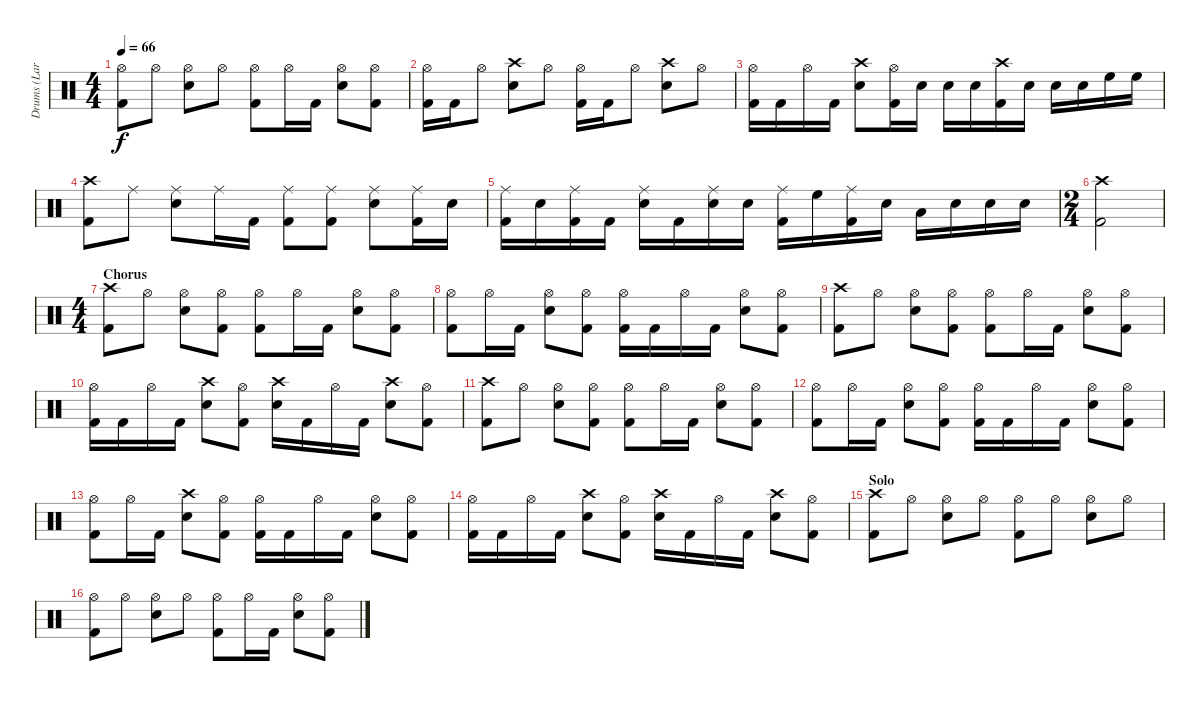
\track ("Drums (Lars)" "Drums (Lar") {instrument percussion}
\staff {score}
\articulation defaults
\ts (4 4)
\tempo 66
\clef neutral
\ks c
("Hi-Hat (open)" "Kick (hit) 2").8{dy f} "Hi-Hat (open)".8 ("Hi-Hat (open)" "Snare (hit) 2").8 "Hi-Hat (open)".8 ("Hi-Hat (open)" "Kick (hit) 2").8 "Hi-Hat (open)".16 "Kick (hit) 2".16 ("Hi-Hat (open)" "Snare (hit) 2").8 ("Hi-Hat (open)" "Kick (hit) 2").8 |
("Hi-Hat (open)" "Kick (hit) 2").16 "Kick (hit) 2".16 "Hi-Hat (open)".8 ("Crash high (hit)" "Snare (hit) 2").8 "Hi-Hat (open)".8 ("Hi-Hat (open)" "Kick (hit) 2").16 "Kick (hit) 2".16 "Hi-Hat (open)".8 ("Crash high (hit)" "Snare (hit) 2").8 "Hi-Hat (open)".8 |
("Hi-Hat (open)" "Kick (hit) 2").16 "Kick (hit) 2".16 "Hi-Hat (open)".16 "Kick (hit) 2".16 ("Crash high (hit)" "Snare (hit) 2").8 ("Hi-Hat (open)" "Kick (hit) 2").16 "Snare (hit) 2".16 "Snare (hit) 2".16 "Snare (hit) 2".16 ("Crash high (hit)" "Kick (hit) 2").16 "Snare (hit) 2".16 "Snare (hit) 2".16 "Snare (hit) 2".16 "High Floor Tom (hit)".16 "High Floor Tom (hit)".16 |
("Crash high (hit)" "Kick (hit) 2").8 "Ride (middle)".8 ("Ride (middle)" "Snare (hit) 2").8 "Ride (middle)".16 "Kick (hit) 2".16 ("Ride (middle)" "Kick (hit) 2").8 ("Ride (middle)" "Kick (hit) 2").8 ("Ride (middle)" "Snare (hit) 2").8 ("Ride (middle)" "Kick (hit) 2").16 "Snare (hit) 2".16 |
("Ride (middle)" "Kick (hit) 2").16 "Snare (hit) 2".16 ("Ride (middle)" "Kick (hit) 2").16 "Kick (hit) 2".16 ("Ride (middle)" "Snare (hit) 2").16 "Kick (hit) 2".16 ("Ride (middle)" "Snare (hit) 2").16 "Snare (hit) 2".16 ("Ride (middle)" "Kick (hit) 2").16 "High Floor Tom (hit)".16 ("Ride (middle)" "Kick (hit) 2").16 "Snare (hit) 2".16 "Low Floor Tom (hit)".16 "Snare (hit) 2".16 "Snare (hit) 2".16 "Snare (hit) 2".16 |
\ts (2 4)
("Crash high (hit)" "Kick (hit) 2").2 |
\ts (4 4)
\section ("" "Chorus")
("Crash high (hit)" "Kick (hit) 2").8 "Hi-Hat (open)".8 ("Hi-Hat (open)" "Snare (hit) 2").8 ("Hi-Hat (open)" "Kick (hit) 2").8 ("Hi-Hat (open)" "Kick (hit) 2").8 "Hi-Hat (open)".16 "Kick (hit) 2".16 ("Hi-Hat (open)" "Snare (hit) 2").8 ("Hi-Hat (open)" "Kick (hit) 2").8 |
("Hi-Hat (open)" "Kick (hit) 2").8 "Hi-Hat (open)".16 "Kick (hit) 2".16 ("Hi-Hat (open)" "Snare (hit) 2").8 ("Hi-Hat (open)" "Kick (hit) 2").8 ("Hi-Hat (open)" "Kick (hit) 2").16 "Kick (hit) 2".16 "Hi-Hat (open)".16 "Kick (hit) 2".16 ("Hi-Hat (open)" "Snare (hit) 2").8 ("Hi-Hat (open)" "Kick (hit) 2").8 |
("Crash high (hit)" "Kick (hit) 2").8 "Hi-Hat (open)".8 ("Hi-Hat (open)" "Snare (hit) 2").8 ("Hi-Hat (open)" "Kick (hit) 2").8 ("Hi-Hat (open)" "Kick (hit) 2").8 "Hi-Hat (open)".16 "Kick (hit) 2".16 ("Hi-Hat (open)" "Snare (hit) 2").8 ("Hi-Hat (open)" "Kick (hit) 2").8 |
("Hi-Hat (open)" "Kick (hit) 2").16 "Kick (hit) 2".16 "Hi-Hat (open)".16 "Kick (hit) 2".16 ("Crash high (hit)" "Snare (hit) 2").8 ("Hi-Hat (open)" "Kick (hit) 2").8 ("Crash high (hit)" "Snare (hit) 2").16 "Kick (hit) 2".16 "Hi-Hat (open)".16 "Kick (hit) 2".16 ("Crash high (hit)" "Snare (hit) 2").8 ("Hi-Hat (open)" "Kick (hit) 2").8 |
("Crash high (hit)" "Kick (hit) 2").8 "Hi-Hat (open)".8 ("Hi-Hat (open)" "Snare (hit) 2").8 ("Hi-Hat (open)" "Kick (hit) 2").8 ("Hi-Hat (open)" "Kick (hit) 2").8 "Hi-Hat (open)".16 "Kick (hit) 2".16 ("Hi-Hat (open)" "Snare (hit) 2").8 ("Hi-Hat (open)" "Kick (hit) 2").8 |
("Hi-Hat (open)" "Kick (hit) 2").8 "Hi-Hat (open)".16 "Kick (hit) 2".16 ("Hi-Hat (open)" "Snare (hit) 2").8 ("Hi-Hat (open)" "Kick (hit) 2").8 ("Hi-Hat (open)" "Kick (hit) 2").16 "Kick (hit) 2".16 "Hi-Hat (open)".16 "Kick (hit) 2".16 ("Hi-Hat (open)" "Snare (hit) 2").8 ("Hi-Hat (open)" "Kick (hit) 2").8 |
("Hi-Hat (open)" "Kick (hit) 2").8 "Hi-Hat (open)".16 "Kick (hit) 2".16 ("Crash high (hit)" "Snare (hit) 2").8 ("Hi-Hat (open)" "Kick (hit) 2").8 ("Hi-Hat (open)" "Kick (hit) 2").16 "Kick (hit) 2".16 "Hi-Hat (open)".16 "Kick (hit) 2".16 ("Hi-Hat (open)" "Snare (hit) 2").8 ("Hi-Hat (open)" "Kick (hit) 2").8 |
("Hi-Hat (open)" "Kick (hit) 2").16 "Kick (hit) 2".16 "Hi-Hat (open)".16 "Kick (hit) 2".16 ("Crash high (hit)" "Snare (hit) 2").8 ("Hi-Hat (open)" "Kick (hit) 2").8 ("Crash high (hit)" "Snare (hit) 2").16 "Kick (hit) 2".16 "Hi-Hat (open)".16 "Kick (hit) 2".16 ("Crash high (hit)" "Snare (hit) 2").8 ("Hi-Hat (open)" "Kick (hit) 2").8 |
\section ("" "Solo")
("Crash high (hit)" "Kick (hit) 2").8 "Hi-Hat (open)".8 ("Hi-Hat (open)" "Snare (hit) 2").8 "Hi-Hat (open)".8 ("Hi-Hat (open)" "Kick (hit) 2").8 "Hi-Hat (open)".8 ("Hi-Hat (open)" "Snare (hit) 2").8 "Hi-Hat (open)".8 |
("Hi-Hat (open)" "Kick (hit) 2").8 "Hi-Hat (open)".8 ("Hi-Hat (open)" "Snare (hit) 2").8 "Hi-Hat (open)".8 ("Hi-Hat (open)" "Kick (hit) 2").8 "Hi-Hat (open)".16 "Kick (hit) 2".16 ("Hi-Hat (open)" "Snare (hit) 2").8 ("Hi-Hat (open)" "Kick (hit) 2").8
